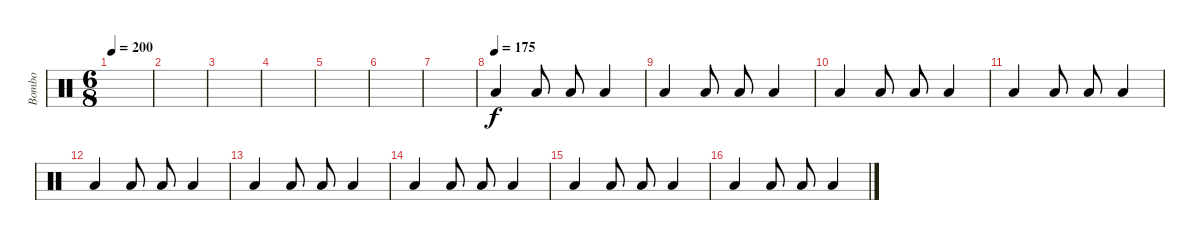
\track ("Bombo" "Bombo") {instrument percussion}
\staff {score}
\articulation defaults
\ts (6 8)
\tempo 200
\clef neutral
\ks c
|
|
|
|
|
|
|
\tempo (175)
"Low Floor Tom (hit)".4 "Low Floor Tom (hit)".8 "Low Floor Tom (hit)".8 "Low Floor Tom (hit)".4 |
"Low Floor Tom (hit)".4 "Low Floor Tom (hit)".8 "Low Floor Tom (hit)".8 "Low Floor Tom (hit)".4 |
"Low Floor Tom (hit)".4 "Low Floor Tom (hit)".8 "Low Floor Tom (hit)".8 "Low Floor Tom (hit)".4 |
"Low Floor Tom (hit)".4 "Low Floor Tom (hit)".8 "Low Floor Tom (hit)".8 "Low Floor Tom (hit)".4 |
"Low Floor Tom (hit)".4 "Low Floor Tom (hit)".8 "Low Floor Tom (hit)".8 "Low Floor Tom (hit)".4 |
"Low Floor Tom (hit)".4 "Low Floor Tom (hit)".8 "Low Floor Tom (hit)".8 "Low Floor Tom (hit)".4 |
"Low Floor Tom (hit)".4 "Low Floor Tom (hit)".8 "Low Floor Tom (hit)".8 "Low Floor Tom (hit)".4 |
"Low Floor Tom (hit)".4 "Low Floor Tom (hit)".8 "Low Floor Tom (hit)".8 "Low Floor Tom (hit)".4 |
"Low Floor Tom (hit)".4 "Low Floor Tom (hit)".8 "Low Floor Tom (hit)".8 "Low Floor Tom (hit)".4
